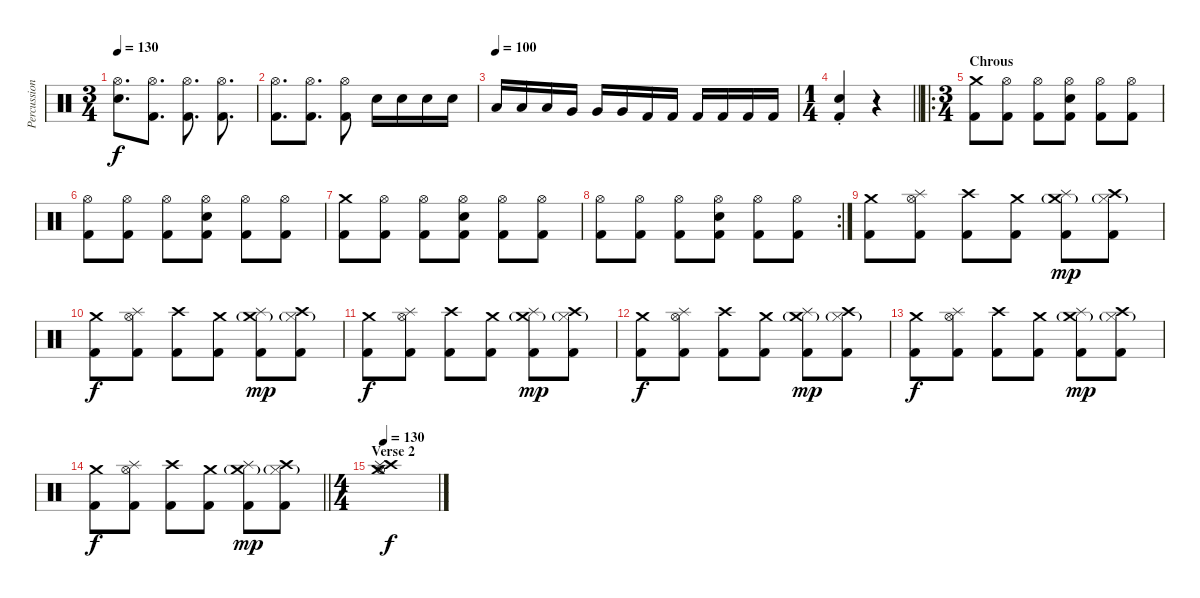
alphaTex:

\track ("Percussion" "Percussion") {instrument percussion}
\staff {score}
\articulation defaults
\ts (3 4)
\tempo 130
\clef neutral
\ks c
("Hi-Hat (open)" "Snare (hit) 2").8{d dy f} ("Hi-Hat (open)" "Kick (hit) 2").8{d} ("Hi-Hat (open)" "Kick (hit) 2").8{d} ("Hi-Hat (open)" "Kick (hit) 2").8{d} |
("Hi-Hat (open)" "Kick (hit) 2").8{d} ("Hi-Hat (open)" "Kick (hit) 2").8{d} ("Hi-Hat (open)" "Kick (hit) 2").8 "Snare (hit) 2".16 "Snare (hit) 2".16 "Snare (hit) 2".16 "Snare (hit) 2".16 |
\tempo (100)
"Low Tom (hit)".16 "Low Tom (hit)".16 "Low Tom (hit)".16 "Very Low Tom (hit)".16 "Very Low Tom (hit)".16 "Very Low Tom (hit)".16 "Kick (hit) 2".16 "Kick (hit) 2".16 "Kick (hit) 2".16 "Kick (hit) 2".16 "Kick (hit) 2".16 "Kick (hit) 2".16 |
\ts (1 4)
\barLineRight lightlight
("Snare (hit) 2" "Kick (hit) 2"{st}).4 r.4 |
\ro
\ts (3 4)
\section ("" "Chrous")
("Crash medium (hit)" "Kick (hit) 2").8 ("Hi-Hat (open)" "Kick (hit) 2").8 ("Hi-Hat (open)" "Kick (hit) 2").8 ("Hi-Hat (open)" "Snare (hit) 2" "Kick (hit) 2").8 ("Hi-Hat (open)" "Kick (hit) 2").8 ("Hi-Hat (open)" "Kick (hit) 2").8 |
("Hi-Hat (open)" "Kick (hit) 2").8 ("Hi-Hat (open)" "Kick (hit) 2").8 ("Hi-Hat (open)" "Kick (hit) 2").8 ("Hi-Hat (open)" "Snare (hit) 2" "Kick (hit) 2").8 ("Hi-Hat (open)" "Kick (hit) 2").8 ("Hi-Hat (open)" "Kick (hit) 2").8 |
("Crash medium (hit)" "Kick (hit) 2").8 ("Hi-Hat (open)" "Kick (hit) 2").8 ("Hi-Hat (open)" "Kick (hit) 2").8 ("Hi-Hat (open)" "Snare (hit) 2" "Kick (hit) 2").8 ("Hi-Hat (open)" "Kick (hit) 2").8 ("Hi-Hat (open)" "Kick (hit) 2").8 |
\rc 2
("Hi-Hat (open)" "Kick (hit) 2").8 ("Hi-Hat (open)" "Kick (hit) 2").8 ("Hi-Hat (open)" "Kick (hit) 2").8 ("Hi-Hat (open)" "Snare (hit) 2" "Kick (hit) 2").8 ("Hi-Hat (open)" "Kick (hit) 2").8 ("Hi-Hat (open)" "Kick (hit) 2").8 |
("Crash medium (hit)" "Kick (hit) 2").8 ("Splash (hit)" "Hi-Hat (open)" "Kick (hit) 2").8 ("Crash high (hit)" "Kick (hit) 2").8 ("Crash medium (hit)" "Kick (hit) 2").8 ("Splash (hit)" "Crash medium (hit)"{g} "Kick (hit) 2").8{dy mp} ("Hi-Hat (closed)"{g} "Crash high (hit)" "Kick (hit) 2").8 |
("Crash medium (hit)" "Kick (hit) 2").8{dy f} ("Splash (hit)" "Hi-Hat (open)" "Kick (hit) 2").8 ("Crash high (hit)" "Kick (hit) 2").8 ("Crash medium (hit)" "Kick (hit) 2").8 ("Splash (hit)" "Crash medium (hit)"{g} "Kick (hit) 2").8{dy mp} ("Hi-Hat (closed)"{g} "Crash high (hit)" "Kick (hit) 2").8 |
("Crash medium (hit)" "Kick (hit) 2").8{dy f} ("Splash (hit)" "Hi-Hat (open)" "Kick (hit) 2").8 ("Crash high (hit)" "Kick (hit) 2").8 ("Crash medium (hit)" "Kick (hit) 2").8 ("Splash (hit)" "Crash medium (hit)"{g} "Kick (hit) 2").8{dy mp} ("Hi-Hat (closed)"{g} "Crash high (hit)" "Kick (hit) 2").8 |
("Crash medium (hit)" "Kick (hit) 2").8{dy f} ("Splash (hit)" "Hi-Hat (open)" "Kick (hit) 2").8 ("Crash high (hit)" "Kick (hit) 2").8 ("Crash medium (hit)" "Kick (hit) 2").8 ("Splash (hit)" "Crash medium (hit)"{g} "Kick (hit) 2").8{dy mp} ("Hi-Hat (closed)"{g} "Crash high (hit)" "Kick (hit) 2").8 |
("Crash medium (hit)" "Kick (hit) 2").8{dy f} ("Splash (hit)" "Hi-Hat (open)" "Kick (hit) 2").8 ("Crash high (hit)" "Kick (hit) 2").8 ("Crash medium (hit)" "Kick (hit) 2").8 ("Splash (hit)" "Crash medium (hit)"{g} "Kick (hit) 2").8{dy mp} ("Hi-Hat (closed)"{g} "Crash high (hit)" "Kick (hit) 2").8 |
\barLineRight lightlight
("Crash medium (hit)" "Kick (hit) 2").8{dy f} ("Splash (hit)" "Hi-Hat (open)" "Kick (hit) 2").8 ("Crash high (hit)" "Kick (hit) 2").8 ("Crash medium (hit)" "Kick (hit) 2").8 ("Splash (hit)" "Crash medium (hit)"{g} "Kick (hit) 2").8{dy mp} ("Hi-Hat (closed)"{g} "Crash high (hit)" "Kick (hit) 2").8 |
\ts (4 4)
\section ("" "Verse 2")
\tempo 130
("Crash medium (hit)" "Crash high (hit)" "Hi-Hat (open)" "Splash (hit)").1{dy f}
